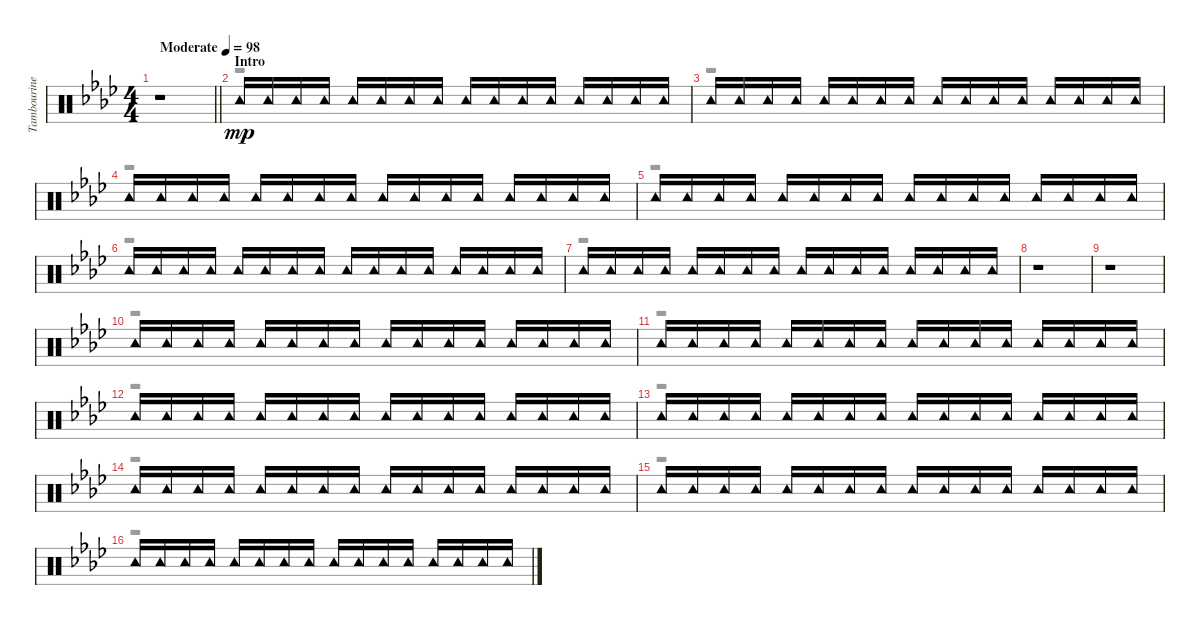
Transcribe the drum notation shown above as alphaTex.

\track ("Tambourine" "Tambourine") {instrument percussion}
\staff {score}
\articulation defaults
\voice
\ts (4 4)
\tempo (98 "Moderate")
\clef neutral
\barLineRight lightlight
\ks ab
r.1{dy mp} |
\section ("" "Intro")
"Tambourine (hit)".16 "Tambourine (hit)".16 "Tambourine (hit)".16 "Tambourine (hit)".16 "Tambourine (hit)".16 "Tambourine (hit)".16 "Tambourine (hit)".16 "Tambourine (hit)".16 "Tambourine (hit)".16 "Tambourine (hit)".16 "Tambourine (hit)".16 "Tambourine (hit)".16 "Tambourine (hit)".16 "Tambourine (hit)".16 "Tambourine (hit)".16 "Tambourine (hit)".16 |
"Tambourine (hit)".16 "Tambourine (hit)".16 "Tambourine (hit)".16 "Tambourine (hit)".16 "Tambourine (hit)".16 "Tambourine (hit)".16 "Tambourine (hit)".16 "Tambourine (hit)".16 "Tambourine (hit)".16 "Tambourine (hit)".16 "Tambourine (hit)".16 "Tambourine (hit)".16 "Tambourine (hit)".16 "Tambourine (hit)".16 "Tambourine (hit)".16 "Tambourine (hit)".16 |
"Tambourine (hit)".16 "Tambourine (hit)".16 "Tambourine (hit)".16 "Tambourine (hit)".16 "Tambourine (hit)".16 "Tambourine (hit)".16 "Tambourine (hit)".16 "Tambourine (hit)".16 "Tambourine (hit)".16 "Tambourine (hit)".16 "Tambourine (hit)".16 "Tambourine (hit)".16 "Tambourine (hit)".16 "Tambourine (hit)".16 "Tambourine (hit)".16 "Tambourine (hit)".16 |
"Tambourine (hit)".16 "Tambourine (hit)".16 "Tambourine (hit)".16 "Tambourine (hit)".16 "Tambourine (hit)".16 "Tambourine (hit)".16 "Tambourine (hit)".16 "Tambourine (hit)".16 "Tambourine (hit)".16 "Tambourine (hit)".16 "Tambourine (hit)".16 "Tambourine (hit)".16 "Tambourine (hit)".16 "Tambourine (hit)".16 "Tambourine (hit)".16 "Tambourine (hit)".16 |
"Tambourine (hit)".16 "Tambourine (hit)".16 "Tambourine (hit)".16 "Tambourine (hit)".16 "Tambourine (hit)".16 "Tambourine (hit)".16 "Tambourine (hit)".16 "Tambourine (hit)".16 "Tambourine (hit)".16 "Tambourine (hit)".16 "Tambourine (hit)".16 "Tambourine (hit)".16 "Tambourine (hit)".16 "Tambourine (hit)".16 "Tambourine (hit)".16 "Tambourine (hit)".16 |
"Tambourine (hit)".16 "Tambourine (hit)".16 "Tambourine (hit)".16 "Tambourine (hit)".16 "Tambourine (hit)".16 "Tambourine (hit)".16 "Tambourine (hit)".16 "Tambourine (hit)".16 "Tambourine (hit)".16 "Tambourine (hit)".16 "Tambourine (hit)".16 "Tambourine (hit)".16 "Tambourine (hit)".16 "Tambourine (hit)".16 "Tambourine (hit)".16 "Tambourine (hit)".16 |
r.1 |
r.1 |
"Tambourine (hit)".16 "Tambourine (hit)".16 "Tambourine (hit)".16 "Tambourine (hit)".16 "Tambourine (hit)".16 "Tambourine (hit)".16 "Tambourine (hit)".16 "Tambourine (hit)".16 "Tambourine (hit)".16 "Tambourine (hit)".16 "Tambourine (hit)".16 "Tambourine (hit)".16 "Tambourine (hit)".16 "Tambourine (hit)".16 "Tambourine (hit)".16 "Tambourine (hit)".16 |
"Tambourine (hit)".16 "Tambourine (hit)".16 "Tambourine (hit)".16 "Tambourine (hit)".16 "Tambourine (hit)".16 "Tambourine (hit)".16 "Tambourine (hit)".16 "Tambourine (hit)".16 "Tambourine (hit)".16 "Tambourine (hit)".16 "Tambourine (hit)".16 "Tambourine (hit)".16 "Tambourine (hit)".16 "Tambourine (hit)".16 "Tambourine (hit)".16 "Tambourine (hit)".16 |
"Tambourine (hit)".16 "Tambourine (hit)".16 "Tambourine (hit)".16 "Tambourine (hit)".16 "Tambourine (hit)".16 "Tambourine (hit)".16 "Tambourine (hit)".16 "Tambourine (hit)".16 "Tambourine (hit)".16 "Tambourine (hit)".16 "Tambourine (hit)".16 "Tambourine (hit)".16 "Tambourine (hit)".16 "Tambourine (hit)".16 "Tambourine (hit)".16 "Tambourine (hit)".16 |
"Tambourine (hit)".16 "Tambourine (hit)".16 "Tambourine (hit)".16 "Tambourine (hit)".16 "Tambourine (hit)".16 "Tambourine (hit)".16 "Tambourine (hit)".16 "Tambourine (hit)".16 "Tambourine (hit)".16 "Tambourine (hit)".16 "Tambourine (hit)".16 "Tambourine (hit)".16 "Tambourine (hit)".16 "Tambourine (hit)".16 "Tambourine (hit)".16 "Tambourine (hit)".16 |
"Tambourine (hit)".16 "Tambourine (hit)".16 "Tambourine (hit)".16 "Tambourine (hit)".16 "Tambourine (hit)".16 "Tambourine (hit)".16 "Tambourine (hit)".16 "Tambourine (hit)".16 "Tambourine (hit)".16 "Tambourine (hit)".16 "Tambourine (hit)".16 "Tambourine (hit)".16 "Tambourine (hit)".16 "Tambourine (hit)".16 "Tambourine (hit)".16 "Tambourine (hit)".16 |
"Tambourine (hit)".16 "Tambourine (hit)".16 "Tambourine (hit)".16 "Tambourine (hit)".16 "Tambourine (hit)".16 "Tambourine (hit)".16 "Tambourine (hit)".16 "Tambourine (hit)".16 "Tambourine (hit)".16 "Tambourine (hit)".16 "Tambourine (hit)".16 "Tambourine (hit)".16 "Tambourine (hit)".16 "Tambourine (hit)".16 "Tambourine (hit)".16 "Tambourine (hit)".16 |
"Tambourine (hit)".16 "Tambourine (hit)".16 "Tambourine (hit)".16 "Tambourine (hit)".16 "Tambourine (hit)".16 "Tambourine (hit)".16 "Tambourine (hit)".16 "Tambourine (hit)".16 "Tambourine (hit)".16 "Tambourine (hit)".16 "Tambourine (hit)".16 "Tambourine (hit)".16 "Tambourine (hit)".16 "Tambourine (hit)".16 "Tambourine (hit)".16 "Tambourine (hit)".16
\voice
\clef neutral
\ottava regular
\simile none
\barLineRight lightlight
\ks ab
r.1{dy f} |
r.1 |
r.1 |
r.1 |
r.1 |
r.1 |
r.1 |
r.1 |
r.1 |
r.1 |
r.1 |
r.1 |
r.1 |
r.1 |
r.1 |
r.1
